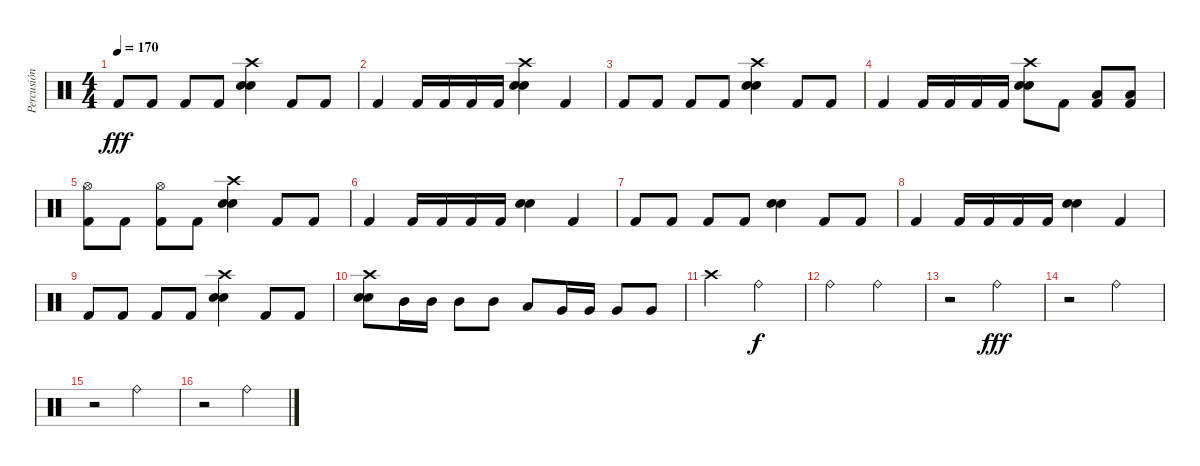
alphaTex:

\track ("Percusión" "Percusión") {instrument percussion}
\staff {score}
\articulation defaults
\ts (4 4)
\tempo 170
\clef neutral
\ks c "Kick (hit) 2".8{dy fff} "Kick (hit) 2".8 "Kick (hit) 2".8 "Kick (hit) 2".8
("Snare (hit) 2" "Electric Snare (hit)" "Crash high (hit)").4 "Kick (hit) 2".8 "Kick (hit) 2".8 |
"Kick (hit) 2".4 "Kick (hit) 2".16 "Kick (hit) 2".16 "Kick (hit) 2".16 "Kick (hit) 2".16 ("Snare (hit) 2" "Electric Snare (hit)" "Crash high (hit)").4 "Kick (hit) 2".4 |
"Kick (hit) 2".8 "Kick (hit) 2".8 "Kick (hit) 2".8 "Kick (hit) 2".8 ("Snare (hit) 2" "Electric Snare (hit)" "Crash high (hit)").4 "Kick (hit) 2".8 "Kick (hit) 2".8 |
"Kick (hit) 2".4 "Kick (hit) 2".16 "Kick (hit) 2".16 "Kick (hit) 2".16 "Kick (hit) 2".16 ("Snare (hit) 2" "Electric Snare (hit)" "Crash high (hit)").8 "Kick (hit) 2".8 ("Kick (hit) 2" "Low Tom (hit)").8 ("Kick (hit) 2" "Low Tom (hit)").8 |
("Kick (hit) 2" "Hi-Hat (open)").8 "Kick (hit) 2".8 ("Kick (hit) 2" "Hi-Hat (open)").8 "Kick (hit) 2".8 ("Snare (hit) 2" "Electric Snare (hit)" "Crash high (hit)").4 "Kick (hit) 2".8 "Kick (hit) 2".8 |
"Kick (hit) 2".4 "Kick (hit) 2".16 "Kick (hit) 2".16 "Kick (hit) 2".16 "Kick (hit) 2".16 ("Snare (hit) 2" "Electric Snare (hit)").4 "Kick (hit) 2".4 |
"Kick (hit) 2".8 "Kick (hit) 2".8 "Kick (hit) 2".8 "Kick (hit) 2".8 ("Snare (hit) 2" "Electric Snare (hit)").4 "Kick (hit) 2".8 "Kick (hit) 2".8 |
"Kick (hit) 2".4 "Kick (hit) 2".16 "Kick (hit) 2".16 "Kick (hit) 2".16 "Kick (hit) 2".16 ("Snare (hit) 2" "Electric Snare (hit)").4 "Kick (hit) 2".4 |
"Kick (hit) 2".8 "Kick (hit) 2".8 "Kick (hit) 2".8 "Kick (hit) 2".8 ("Snare (hit) 2" "Electric Snare (hit)" "Crash high (hit)").4 "Kick (hit) 2".8 "Kick (hit) 2".8 |
("Snare (hit) 2" "Electric Snare (hit)" "Crash high (hit)").8 "Mid Tom (hit)".16 "Mid Tom (hit)".16 "Mid Tom (hit)".8 "Mid Tom (hit)".8 "Low Tom (hit)".8 "Very Low Tom (hit)".16 "Very Low Tom (hit)".16 "Very Low Tom (hit)".8 "Very Low Tom (hit)".8 |
"Crash high (hit)".2 "Ride (bell)".2{dy f} |
"Ride (bell)".2 "Ride (bell)".2 |
r.2 "Ride (bell)".2{dy fff} |
r.2 "Ride (bell)".2 |
r.2 "Ride (bell)".2 |
r.2 "Ride (bell)".2
